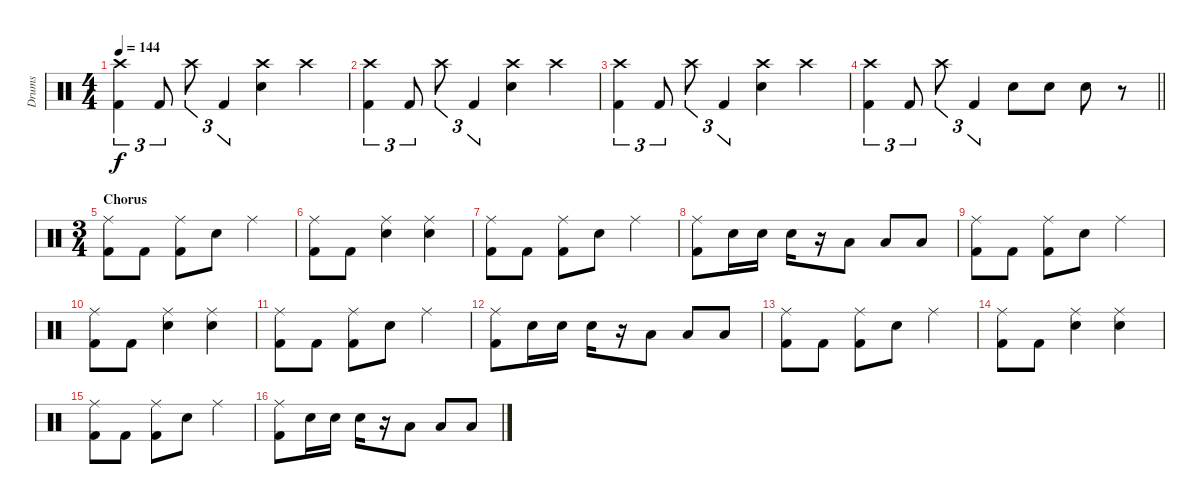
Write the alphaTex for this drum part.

\track ("Drums" "Drums") {instrument percussion}
\staff {score}
\articulation defaults
\ts (4 4)
\tempo 144
\clef neutral
\ks c
("Crash high (hit)" "Kick (hit) 2").4{tu (3 2) dy f} "Kick (hit) 2".8{tu (3 2)} "Crash high (hit)".8{tu (3 2)} "Kick (hit) 2".4{tu (3 2)} ("Crash high (hit)" "Snare (hit) 2").4 "Crash high (hit)".4 |
("Crash high (hit)" "Kick (hit) 2").4{tu (3 2)} "Kick (hit) 2".8{tu (3 2)} "Crash high (hit)".8{tu (3 2)} "Kick (hit) 2".4{tu (3 2)} ("Crash high (hit)" "Snare (hit) 2").4 "Crash high (hit)".4 |
("Crash high (hit)" "Kick (hit) 2").4{tu (3 2)} "Kick (hit) 2".8{tu (3 2)} "Crash high (hit)".8{tu (3 2)} "Kick (hit) 2".4{tu (3 2)} ("Crash high (hit)" "Snare (hit) 2").4 "Crash high (hit)".4 |
\barLineRight lightlight
("Crash high (hit)" "Kick (hit) 2").4{tu (3 2)} "Kick (hit) 2".8{tu (3 2)} "Crash high (hit)".8{tu (3 2)} "Kick (hit) 2".4{tu (3 2)} "Snare (hit) 2".8 "Snare (hit) 2".8 "Snare (hit) 2".8 r.8 |
\ts (3 4)
\section ("" "Chorus")
("Ride (middle)" "Kick (hit) 2").8 "Kick (hit) 2".8 ("Ride (middle)" "Kick (hit) 2").8 "Snare (hit) 2".8 "Ride (middle)".4 |
("Ride (middle)" "Kick (hit) 2").8 "Kick (hit) 2".8 ("Ride (middle)" "Snare (hit) 2").4 ("Ride (middle)" "Snare (hit) 2").4 |
("Ride (middle)" "Kick (hit) 2").8 "Kick (hit) 2".8 ("Ride (middle)" "Kick (hit) 2").8 "Snare (hit) 2".8 "Ride (middle)".4 |
("Ride (middle)" "Kick (hit) 2").8 "Snare (hit) 2".16 "Snare (hit) 2".16 "Snare (hit) 2".16 r.16 "Low Tom (hit)".8 "Low Tom (hit)".8 "Low Tom (hit)".8 |
("Ride (middle)" "Kick (hit) 2").8 "Kick (hit) 2".8 ("Ride (middle)" "Kick (hit) 2").8 "Snare (hit) 2".8 "Ride (middle)".4 |
("Ride (middle)" "Kick (hit) 2").8 "Kick (hit) 2".8 ("Ride (middle)" "Snare (hit) 2").4 ("Ride (middle)" "Snare (hit) 2").4 |
("Ride (middle)" "Kick (hit) 2").8 "Kick (hit) 2".8 ("Ride (middle)" "Kick (hit) 2").8 "Snare (hit) 2".8 "Ride (middle)".4 |
("Ride (middle)" "Kick (hit) 2").8 "Snare (hit) 2".16 "Snare (hit) 2".16 "Snare (hit) 2".16 r.16 "Low Tom (hit)".8 "Low Tom (hit)".8 "Low Tom (hit)".8 |
("Ride (middle)" "Kick (hit) 2").8 "Kick (hit) 2".8 ("Ride (middle)" "Kick (hit) 2").8 "Snare (hit) 2".8 "Ride (middle)".4 |
("Ride (middle)" "Kick (hit) 2").8 "Kick (hit) 2".8 ("Ride (middle)" "Snare (hit) 2").4 ("Ride (middle)" "Snare (hit) 2").4 |
("Ride (middle)" "Kick (hit) 2").8 "Kick (hit) 2".8 ("Ride (middle)" "Kick (hit) 2").8 "Snare (hit) 2".8 "Ride (middle)".4 |
("Ride (middle)" "Kick (hit) 2").8 "Snare (hit) 2".16 "Snare (hit) 2".16 "Snare (hit) 2".16 r.16 "Low Tom (hit)".8 "Low Tom (hit)".8 "Low Tom (hit)".8
